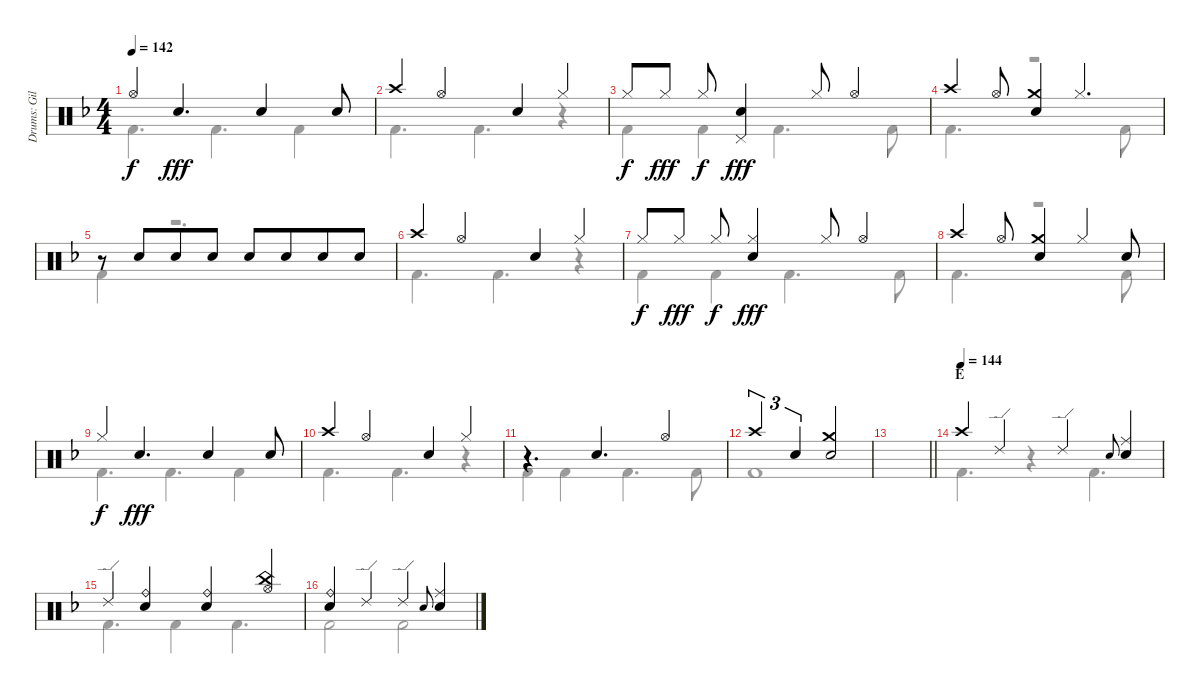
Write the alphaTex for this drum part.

\track ("Drums: Gil" "Drums: Gil") {instrument percussion}
\staff {score}
\articulation defaults
\voice
\ts (4 4)
\tempo 142
\clef neutral
\ks f "Hi-Hat (open)"{t}.4{dy f} "Snare (hit) 2".4{d dy fff} "Snare (hit) 2".4 "Snare (hit) 2".8
|
"Crash high (hit)".4 "Hi-Hat (open)".4 "Snare (hit) 2".4 "Hi-Hat (closed)".4 |
"Hi-Hat (closed)".8{dy f} "Hi-Hat (closed)".8{dy fff} "Hi-Hat (closed)".8{dy f} ("Pedal Hi-Hat (hit)" "Snare (hit) 2").4{dy fff} "Hi-Hat (closed)".8 "Hi-Hat (open)".4 |
"Crash high (hit)".4 "Hi-Hat (open)".8 ("Crash medium (hit)" "Snare (hit) 2").4 "Hi-Hat (closed)".4{d} |
r.8 "Snare (hit) 2".8{beam merge} "Snare (hit) 2".8 "Snare (hit) 2".8 "Snare (hit) 2".8 "Snare (hit) 2".8{beam merge} "Snare (hit) 2".8 "Snare (hit) 2".8 |
"Crash high (hit)".4 "Hi-Hat (open)".4 "Snare (hit) 2".4 "Hi-Hat (closed)".4 |
"Hi-Hat (closed)".8{dy f} "Hi-Hat (closed)".8{dy fff} "Hi-Hat (closed)".8{dy f} ("Hi-Hat (closed)" "Snare (hit) 2").4{dy fff} "Hi-Hat (closed)".8 "Hi-Hat (open)".4 |
"Crash high (hit)".4 "Hi-Hat (open)".8 ("Crash medium (hit)" "Snare (hit) 2").4 "Hi-Hat (closed)".4 "Snare (hit) 2".8 |
"Hi-Hat (closed)".4{dy f} "Snare (hit) 2".4{d dy fff} "Snare (hit) 2".4 "Snare (hit) 2".8 |
"Crash high (hit)".4 "Hi-Hat (open)".4 "Snare (hit) 2".4 "Hi-Hat (closed)".4 |
r.4{d} "Snare (hit) 2".4{d} "Hi-Hat (open)".4 |
"Crash high (hit)".2{tu (3 2)} "Snare (hit) 2".4{tu (3 2)} ("Crash medium (hit)" "Snare (hit) 2").2 |
\barLineRight lightlight
|
\section ("" "E")
\tempo (144)
"Crash high (hit)".4 "Ride (edge) 2".4 "Ride (edge) 2".4 "Electric Snare (hit)".8{gr onbeat} ("Ride (middle)" "Snare (hit) 2").4 |
"Ride (edge) 2".4 ("Ride (bell)" "Snare (hit) 2").4 ("Ride (bell)" "Snare (hit) 2").4 ("China (hit)" "Hi-Hat (open)").4 |
("Ride (bell)" "Snare (hit) 2").4 "Ride (edge) 2".4 "Ride (edge) 2".4 "Electric Snare (hit)".8{gr onbeat} ("Ride (middle)" "Snare (hit) 2").4
\voice
\clef neutral
\ottava regular
\simile none
\ks f "Kick (hit) 2".4{d dy f} "Kick (hit) 2".4{d} "Kick (hit) 2".4
|
"Kick (hit) 2".4{d} "Kick (hit) 2".4{d} r.4 |
"Kick (hit) 2".4 "Kick (hit) 2".4 "Kick (hit) 2".4{d} "Kick (hit) 2".8 |
"Kick (hit) 2".4{d} r.2 "Kick (hit) 2".8 |
"Kick (hit) 2".4 r.2{d} |
"Kick (hit) 2".4{d} "Kick (hit) 2".4{d} r.4 |
"Kick (hit) 2".4 "Kick (hit) 2".4 "Kick (hit) 2".4{d} "Kick (hit) 2".8 |
"Kick (hit) 2".4{d} r.2 "Kick (hit) 2".8 |
"Kick (hit) 2".4{d} "Kick (hit) 2".4{d} "Kick (hit) 2".4 |
"Kick (hit) 2".4{d} "Kick (hit) 2".4{d} r.4 |
"Kick (hit) 2".4 "Kick (hit) 2".4 "Kick (hit) 2".4{d} "Kick (hit) 2".8 |
"Kick (hit) 2".1 |
\barLineRight lightlight
|
"Kick (hit) 2".4{d} r.4 "Kick (hit) 2".4{d} |
"Kick (hit) 2".4{d} "Kick (hit) 2".4 "Kick (hit) 2".4{d} |
"Kick (hit) 2".2 "Kick (hit) 2".2
